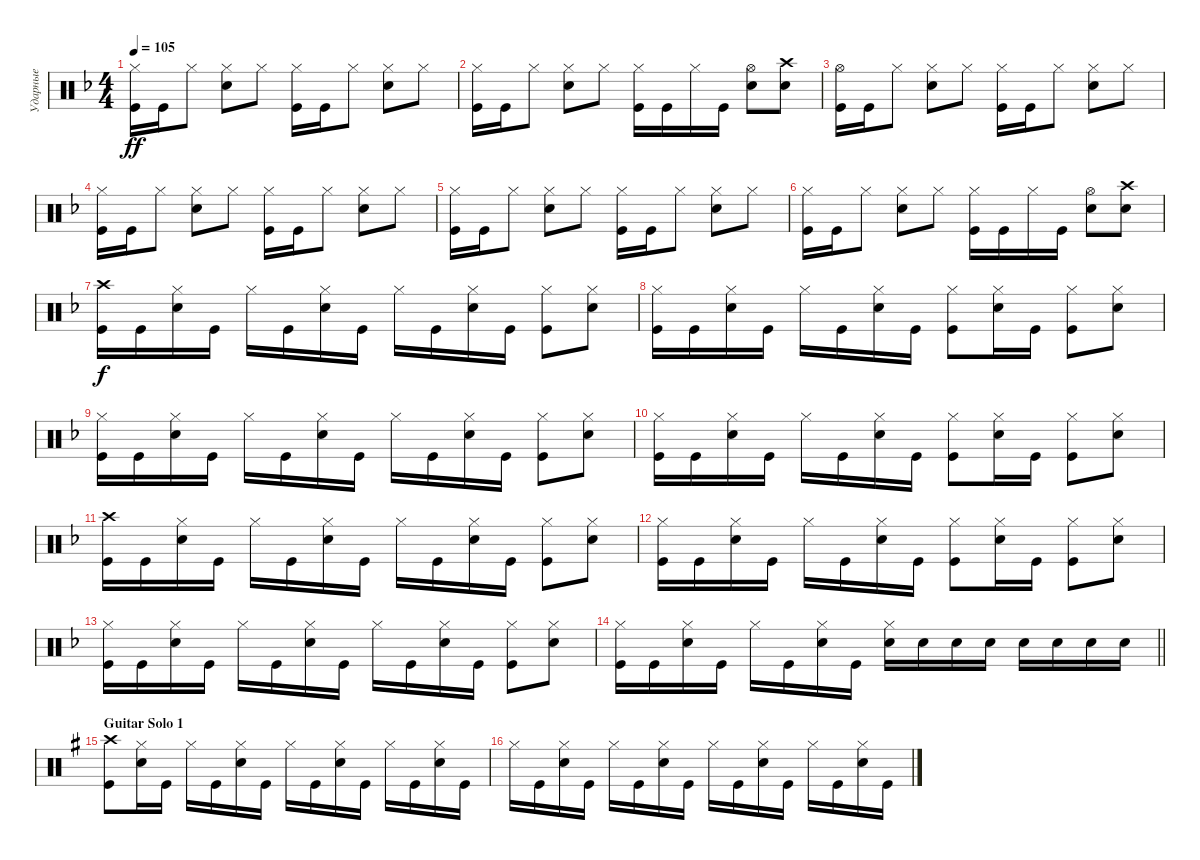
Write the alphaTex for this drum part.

\track ("Ударные" "Ударные") {instrument percussion}
\staff {score}
\articulation defaults
\ts (4 4)
\tempo 105
\clef neutral
\ks dminor
("Kick (hit)" "Hi-Hat (closed)").16{dy ff} "Kick (hit)".16 "Hi-Hat (closed)".8 ("Hi-Hat (closed)" "Snare (hit) 2").8 "Hi-Hat (closed)".8 ("Hi-Hat (closed)" "Kick (hit)").16 "Kick (hit)".16 "Hi-Hat (closed)".8 ("Hi-Hat (closed)" "Snare (hit) 2").8 "Hi-Hat (closed)".8 |
("Kick (hit)" "Hi-Hat (closed)").16 "Kick (hit)".16 "Hi-Hat (closed)".8 ("Hi-Hat (closed)" "Snare (hit) 2").8 "Hi-Hat (closed)".8 ("Hi-Hat (closed)" "Kick (hit)").16 "Kick (hit)".16 "Hi-Hat (closed)".16 "Kick (hit)".16 ("Hi-Hat (open)" "Snare (hit) 2").8 ("Crash high (hit)" "Snare (hit) 2").8 |
("Kick (hit)" "Hi-Hat (open)").16 "Kick (hit)".16 "Hi-Hat (closed)".8 ("Snare (hit) 2" "Hi-Hat (closed)").8 "Hi-Hat (closed)".8 ("Kick (hit)" "Hi-Hat (closed)").16 "Kick (hit)".16 "Hi-Hat (closed)".8 ("Hi-Hat (closed)" "Snare (hit) 2").8 "Hi-Hat (closed)".8 |
("Kick (hit)" "Hi-Hat (closed)").16 "Kick (hit)".16 "Hi-Hat (closed)".8 ("Hi-Hat (closed)" "Snare (hit) 2").8 "Hi-Hat (closed)".8 ("Hi-Hat (closed)" "Kick (hit)").16 "Kick (hit)".16 "Hi-Hat (closed)".8 ("Hi-Hat (closed)" "Snare (hit) 2").8 "Hi-Hat (closed)".8 |
("Kick (hit)" "Hi-Hat (closed)").16 "Kick (hit)".16 "Hi-Hat (closed)".8 ("Hi-Hat (closed)" "Snare (hit) 2").8 "Hi-Hat (closed)".8 ("Hi-Hat (closed)" "Kick (hit)").16 "Kick (hit)".16 "Hi-Hat (closed)".8 ("Hi-Hat (closed)" "Snare (hit) 2").8 "Hi-Hat (closed)".8 |
("Kick (hit)" "Hi-Hat (closed)").16 "Kick (hit)".16 "Hi-Hat (closed)".8 ("Hi-Hat (closed)" "Snare (hit) 2").8 "Hi-Hat (closed)".8 ("Hi-Hat (closed)" "Kick (hit)").16 "Kick (hit)".16 "Hi-Hat (closed)".16 "Kick (hit)".16 ("Hi-Hat (open)" "Snare (hit) 2").8 ("Crash high (hit)" "Snare (hit) 2").8 |
("Kick (hit)" "Crash high (hit)").16{dy f} "Kick (hit)".16 ("Snare (hit) 2" "Hi-Hat (closed)").16 "Kick (hit)".16 "Hi-Hat (closed)".16 "Kick (hit)".16 ("Snare (hit) 2" "Hi-Hat (closed)").16 "Kick (hit)".16 "Hi-Hat (closed)".16 "Kick (hit)".16 ("Snare (hit) 2" "Hi-Hat (closed)").16 "Kick (hit)".16 ("Kick (hit)" "Hi-Hat (closed)").8 ("Snare (hit) 2" "Hi-Hat (closed)").8 |
("Kick (hit)" "Hi-Hat (closed)").16 "Kick (hit)".16 ("Snare (hit) 2" "Hi-Hat (closed)").16 "Kick (hit)".16 "Hi-Hat (closed)".16 "Kick (hit)".16 ("Snare (hit) 2" "Hi-Hat (closed)").16 "Kick (hit)".16 ("Kick (hit)" "Hi-Hat (closed)").8 ("Snare (hit) 2" "Hi-Hat (closed)").16 "Kick (hit)".16 ("Kick (hit)" "Hi-Hat (closed)").8 ("Snare (hit) 2" "Hi-Hat (closed)").8 |
("Kick (hit)" "Hi-Hat (closed)").16 "Kick (hit)".16 ("Snare (hit) 2" "Hi-Hat (closed)").16 "Kick (hit)".16 "Hi-Hat (closed)".16 "Kick (hit)".16 ("Snare (hit) 2" "Hi-Hat (closed)").16 "Kick (hit)".16 "Hi-Hat (closed)".16 "Kick (hit)".16 ("Snare (hit) 2" "Hi-Hat (closed)").16 "Kick (hit)".16 ("Kick (hit)" "Hi-Hat (closed)").8 ("Snare (hit) 2" "Hi-Hat (closed)").8 |
("Kick (hit)" "Hi-Hat (closed)").16 "Kick (hit)".16 ("Snare (hit) 2" "Hi-Hat (closed)").16 "Kick (hit)".16 "Hi-Hat (closed)".16 "Kick (hit)".16 ("Snare (hit) 2" "Hi-Hat (closed)").16 "Kick (hit)".16 ("Kick (hit)" "Hi-Hat (closed)").8 ("Snare (hit) 2" "Hi-Hat (closed)").16 "Kick (hit)".16 ("Kick (hit)" "Hi-Hat (closed)").8 ("Snare (hit) 2" "Hi-Hat (closed)").8 |
("Kick (hit)" "Crash high (hit)").16 "Kick (hit)".16 ("Snare (hit) 2" "Hi-Hat (closed)").16 "Kick (hit)".16 "Hi-Hat (closed)".16 "Kick (hit)".16 ("Snare (hit) 2" "Hi-Hat (closed)").16 "Kick (hit)".16 "Hi-Hat (closed)".16 "Kick (hit)".16 ("Snare (hit) 2" "Hi-Hat (closed)").16 "Kick (hit)".16 ("Kick (hit)" "Hi-Hat (closed)").8 ("Snare (hit) 2" "Hi-Hat (closed)").8 |
("Kick (hit)" "Hi-Hat (closed)").16 "Kick (hit)".16 ("Snare (hit) 2" "Hi-Hat (closed)").16 "Kick (hit)".16 "Hi-Hat (closed)".16 "Kick (hit)".16 ("Snare (hit) 2" "Hi-Hat (closed)").16 "Kick (hit)".16 ("Kick (hit)" "Hi-Hat (closed)").8 ("Snare (hit) 2" "Hi-Hat (closed)").16 "Kick (hit)".16 ("Kick (hit)" "Hi-Hat (closed)").8 ("Snare (hit) 2" "Hi-Hat (closed)").8 |
("Kick (hit)" "Hi-Hat (closed)").16 "Kick (hit)".16 ("Snare (hit) 2" "Hi-Hat (closed)").16 "Kick (hit)".16 "Hi-Hat (closed)".16 "Kick (hit)".16 ("Snare (hit) 2" "Hi-Hat (closed)").16 "Kick (hit)".16 "Hi-Hat (closed)".16 "Kick (hit)".16 ("Snare (hit) 2" "Hi-Hat (closed)").16 "Kick (hit)".16 ("Kick (hit)" "Hi-Hat (closed)").8 ("Snare (hit) 2" "Hi-Hat (closed)").8 |
\barLineRight lightlight
("Kick (hit)" "Hi-Hat (closed)").16 "Kick (hit)".16 ("Snare (hit) 2" "Hi-Hat (closed)").16 "Kick (hit)".16 "Hi-Hat (closed)".16 "Kick (hit)".16 ("Snare (hit) 2" "Hi-Hat (closed)").16 "Kick (hit)".16 ("Snare (hit) 2" "Hi-Hat (closed)").16 "Snare (hit) 2".16 "Snare (hit) 2".16 "Snare (hit) 2".16 "Snare (hit) 2".16 "Snare (hit) 2".16 "Snare (hit) 2".16 "Snare (hit) 2".16 |
\section ("" "Guitar Solo 1")
\ks eminor
("Kick (hit)" "Crash high (hit)").8 ("Snare (hit) 2" "Hi-Hat (closed)").16 "Kick (hit)".16 "Hi-Hat (closed)".16 "Kick (hit)".16 ("Snare (hit) 2" "Hi-Hat (closed)").16 "Kick (hit)".16 "Hi-Hat (closed)".16 "Kick (hit)".16 ("Snare (hit) 2" "Hi-Hat (closed)").16 "Kick (hit)".16 "Hi-Hat (closed)".16 "Kick (hit)".16 ("Snare (hit) 2" "Hi-Hat (closed)").16 "Kick (hit)".16 |
"Hi-Hat (closed)".16 "Kick (hit)".16 ("Snare (hit) 2" "Hi-Hat (closed)").16 "Kick (hit)".16 "Hi-Hat (closed)".16 "Kick (hit)".16 ("Snare (hit) 2" "Hi-Hat (closed)").16 "Kick (hit)".16 "Hi-Hat (closed)".16 "Kick (hit)".16 ("Snare (hit) 2" "Hi-Hat (closed)").16 "Kick (hit)".16 "Hi-Hat (closed)".16 "Kick (hit)".16 ("Snare (hit) 2" "Hi-Hat (closed)").16 "Kick (hit)".16
